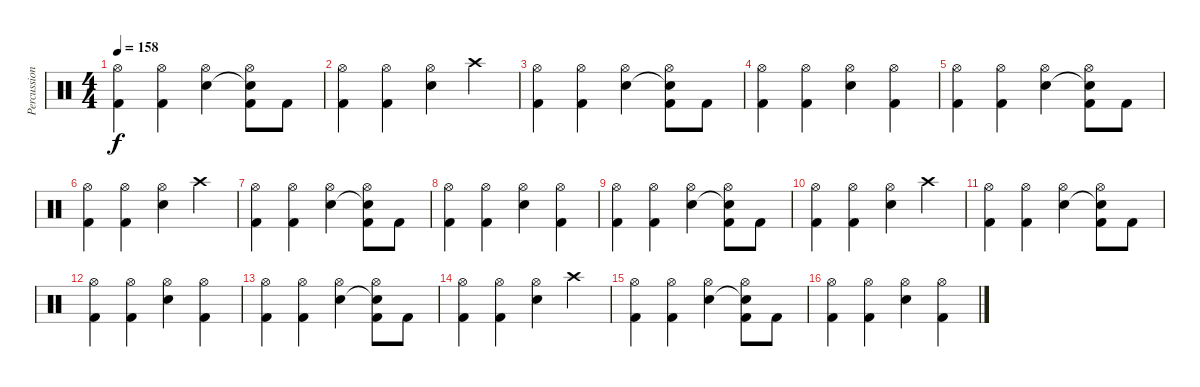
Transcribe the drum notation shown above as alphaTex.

\track ("Percussions" "Percussion") {instrument percussion}
\staff {score}
\articulation defaults
\ts (4 4)
\tempo 158
\clef neutral
\ks c
("Hi-Hat (open)" "Kick (hit) 2").4{dy f} ("Hi-Hat (open)" "Kick (hit) 2").4 ("Hi-Hat (open)" "Electric Snare (hit)").4 ("Hi-Hat (open)" "Snare (hit)"{t} "Kick (hit) 2").8 "Kick (hit) 2".8 |
("Hi-Hat (open)" "Kick (hit) 2").4 ("Hi-Hat (open)" "Kick (hit) 2").4 ("Hi-Hat (open)" "Electric Snare (hit)").4 "Crash high (hit)".4 |
("Hi-Hat (open)" "Kick (hit) 2").4 ("Hi-Hat (open)" "Kick (hit) 2").4 ("Hi-Hat (open)" "Electric Snare (hit)").4 ("Hi-Hat (open)" "Snare (hit)"{t} "Kick (hit) 2").8 "Kick (hit) 2".8 |
("Hi-Hat (open)" "Kick (hit) 2").4 ("Hi-Hat (open)" "Kick (hit) 2").4 ("Hi-Hat (open)" "Electric Snare (hit)").4 ("Hi-Hat (open)" "Kick (hit) 2").4 |
("Hi-Hat (open)" "Kick (hit) 2").4 ("Hi-Hat (open)" "Kick (hit) 2").4 ("Hi-Hat (open)" "Electric Snare (hit)").4 ("Hi-Hat (open)" "Snare (hit)"{t} "Kick (hit) 2").8 "Kick (hit) 2".8 |
("Hi-Hat (open)" "Kick (hit) 2").4 ("Hi-Hat (open)" "Kick (hit) 2").4 ("Hi-Hat (open)" "Electric Snare (hit)").4 "Crash high (hit)".4 |
("Hi-Hat (open)" "Kick (hit) 2").4 ("Hi-Hat (open)" "Kick (hit) 2").4 ("Hi-Hat (open)" "Electric Snare (hit)").4 ("Hi-Hat (open)" "Snare (hit)"{t} "Kick (hit) 2").8 "Kick (hit) 2".8 |
("Hi-Hat (open)" "Kick (hit) 2").4 ("Hi-Hat (open)" "Kick (hit) 2").4 ("Hi-Hat (open)" "Electric Snare (hit)").4 ("Hi-Hat (open)" "Kick (hit) 2").4 |
("Hi-Hat (open)" "Kick (hit) 2").4 ("Hi-Hat (open)" "Kick (hit) 2").4 ("Hi-Hat (open)" "Electric Snare (hit)").4 ("Hi-Hat (open)" "Snare (hit)"{t} "Kick (hit) 2").8 "Kick (hit) 2".8 |
("Hi-Hat (open)" "Kick (hit) 2").4 ("Hi-Hat (open)" "Kick (hit) 2").4 ("Hi-Hat (open)" "Electric Snare (hit)").4 "Crash high (hit)".4 |
("Hi-Hat (open)" "Kick (hit) 2").4 ("Hi-Hat (open)" "Kick (hit) 2").4 ("Hi-Hat (open)" "Electric Snare (hit)").4 ("Hi-Hat (open)" "Snare (hit)"{t} "Kick (hit) 2").8 "Kick (hit) 2".8 |
("Hi-Hat (open)" "Kick (hit) 2").4 ("Hi-Hat (open)" "Kick (hit) 2").4 ("Hi-Hat (open)" "Electric Snare (hit)").4 ("Hi-Hat (open)" "Kick (hit) 2").4 |
("Hi-Hat (open)" "Kick (hit) 2").4 ("Hi-Hat (open)" "Kick (hit) 2").4 ("Hi-Hat (open)" "Electric Snare (hit)").4 ("Hi-Hat (open)" "Snare (hit)"{t} "Kick (hit) 2").8 "Kick (hit) 2".8 |
("Hi-Hat (open)" "Kick (hit) 2").4 ("Hi-Hat (open)" "Kick (hit) 2").4 ("Hi-Hat (open)" "Electric Snare (hit)").4 "Crash high (hit)".4 |
("Hi-Hat (open)" "Kick (hit) 2").4 ("Hi-Hat (open)" "Kick (hit) 2").4 ("Hi-Hat (open)" "Electric Snare (hit)").4 ("Hi-Hat (open)" "Snare (hit)"{t} "Kick (hit) 2").8 "Kick (hit) 2".8 |
("Hi-Hat (open)" "Kick (hit) 2").4 ("Hi-Hat (open)" "Kick (hit) 2").4 ("Hi-Hat (open)" "Electric Snare (hit)").4 ("Hi-Hat (open)" "Kick (hit) 2").4
